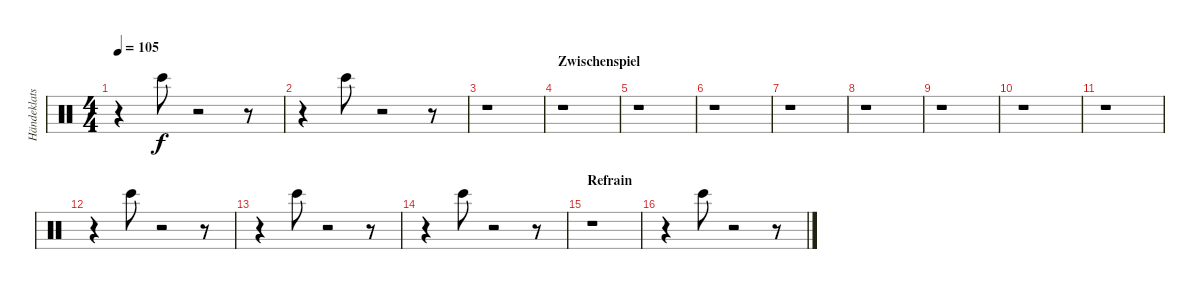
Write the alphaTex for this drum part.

\track ("Händeklatschen" "Händeklats") {instrument percussion}
\staff {score}
\articulation defaults
\ts (4 4)
\tempo 105
\clef neutral
\ks c
r.4{dy f} "Bongo High (hit)".8 r.2 r.8 |
r.4 "Bongo High (hit)".8 r.2 r.8 |
r.1 |
\section ("" "Zwischenspiel")
r.1 |
r.1 |
r.1 |
r.1 |
r.1 |
r.1 |
r.1 |
r.1 |
r.4 "Bongo High (hit)".8 r.2 r.8 |
r.4 "Bongo High (hit)".8 r.2 r.8 |
r.4 "Bongo High (hit)".8 r.2 r.8 |
\section ("" "Refrain")
r.1 |
r.4 "Bongo High (hit)".8 r.2 r.8
